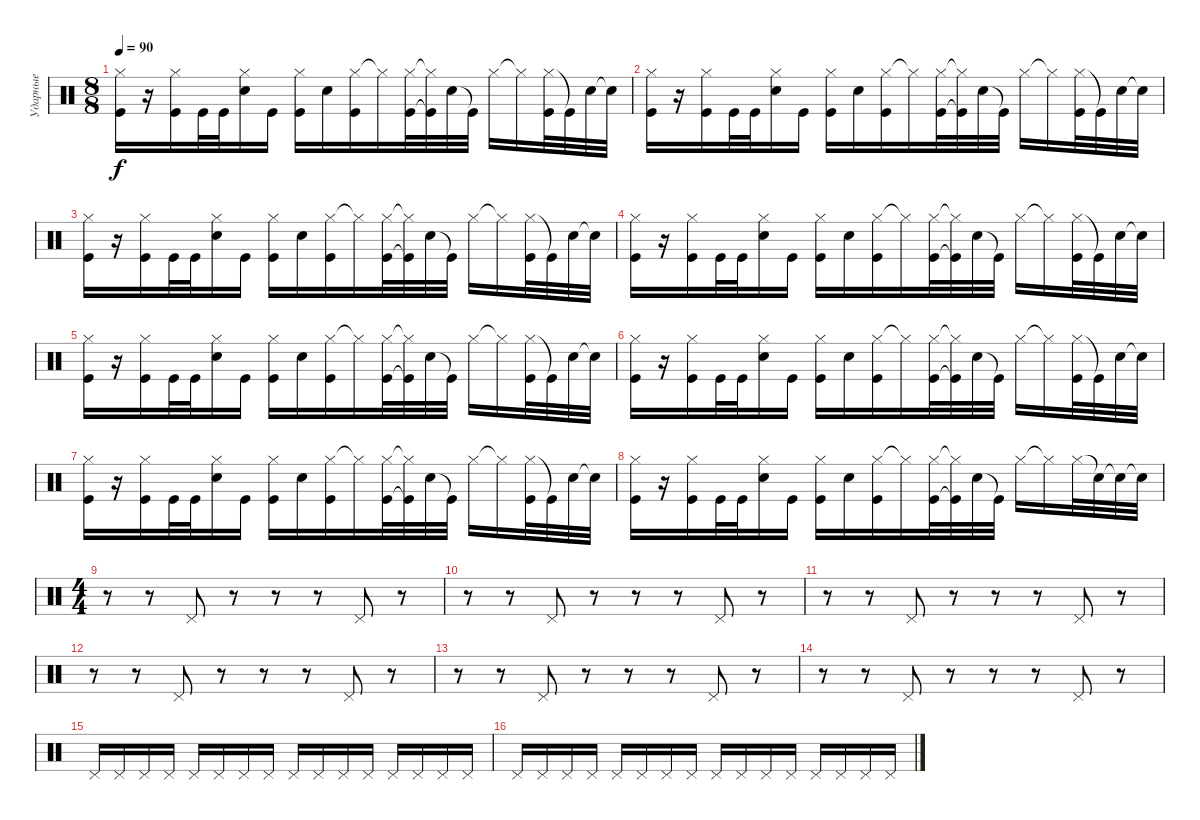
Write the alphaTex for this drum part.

\track ("Ударные" "Ударные") {instrument percussion}
\staff {score}
\articulation defaults
\ts (8 8)
\tempo 90
\clef neutral
\ks c
("Hi-Hat (closed)" "Kick (hit)").16{dy f} r.16 ("Hi-Hat (closed)" "Kick (hit)").16 "Kick (hit)".32 "Kick (hit)".32 ("Hi-Hat (closed)" "Electric Snare (hit)").16 "Kick (hit)".16 ("Hi-Hat (closed)" "Kick (hit)").16 "Electric Snare (hit)".16 ("Hi-Hat (closed)" "Kick (hit)").16 "Hi-Hat (closed)"{t}.16 ("Hi-Hat (closed)" "Kick (hit)").32 ("Hi-Hat (closed)"{t} "Kick (hit)"{t}).32 "Electric Snare (hit)".32 "Kick (hit)"{t}.32 "Hi-Hat (closed)".16 "Hi-Hat (closed)"{t}.16 ("Hi-Hat (closed)" "Kick (hit)").32 "Kick (hit)"{t}.32 "Electric Snare (hit)".32 "Electric Snare (hit)"{t}.32 |
("Hi-Hat (closed)" "Kick (hit)").16 r.16 ("Hi-Hat (closed)" "Kick (hit)").16 "Kick (hit)".32 "Kick (hit)".32 ("Hi-Hat (closed)" "Electric Snare (hit)").16 "Kick (hit)".16 ("Hi-Hat (closed)" "Kick (hit)").16 "Electric Snare (hit)".16 ("Hi-Hat (closed)" "Kick (hit)").16 "Hi-Hat (closed)"{t}.16 ("Hi-Hat (closed)" "Kick (hit)").32 ("Hi-Hat (closed)"{t} "Kick (hit)"{t}).32 "Electric Snare (hit)".32 "Kick (hit)"{t}.32 "Hi-Hat (closed)".16 "Hi-Hat (closed)"{t}.16 ("Hi-Hat (closed)" "Kick (hit)").32 "Kick (hit)"{t}.32 "Electric Snare (hit)".32 "Electric Snare (hit)"{t}.32 |
("Hi-Hat (closed)" "Kick (hit)").16 r.16 ("Hi-Hat (closed)" "Kick (hit)").16 "Kick (hit)".32 "Kick (hit)".32 ("Hi-Hat (closed)" "Electric Snare (hit)").16 "Kick (hit)".16 ("Hi-Hat (closed)" "Kick (hit)").16 "Electric Snare (hit)".16 ("Hi-Hat (closed)" "Kick (hit)").16 "Hi-Hat (closed)"{t}.16 ("Hi-Hat (closed)" "Kick (hit)").32 ("Hi-Hat (closed)"{t} "Kick (hit)"{t}).32 "Electric Snare (hit)".32 "Kick (hit)"{t}.32 "Hi-Hat (closed)".16 "Hi-Hat (closed)"{t}.16 ("Hi-Hat (closed)" "Kick (hit)").32 "Kick (hit)"{t}.32 "Electric Snare (hit)".32 "Electric Snare (hit)"{t}.32 |
("Hi-Hat (closed)" "Kick (hit)").16 r.16 ("Hi-Hat (closed)" "Kick (hit)").16 "Kick (hit)".32 "Kick (hit)".32 ("Hi-Hat (closed)" "Electric Snare (hit)").16 "Kick (hit)".16 ("Hi-Hat (closed)" "Kick (hit)").16 "Electric Snare (hit)".16 ("Hi-Hat (closed)" "Kick (hit)").16 "Hi-Hat (closed)"{t}.16 ("Hi-Hat (closed)" "Kick (hit)").32 ("Hi-Hat (closed)"{t} "Kick (hit)"{t}).32 "Electric Snare (hit)".32 "Kick (hit)"{t}.32 "Hi-Hat (closed)".16 "Hi-Hat (closed)"{t}.16 ("Hi-Hat (closed)" "Kick (hit)").32 "Kick (hit)"{t}.32 "Electric Snare (hit)".32 "Electric Snare (hit)"{t}.32 |
("Hi-Hat (closed)" "Kick (hit)").16 r.16 ("Hi-Hat (closed)" "Kick (hit)").16 "Kick (hit)".32 "Kick (hit)".32 ("Hi-Hat (closed)" "Electric Snare (hit)").16 "Kick (hit)".16 ("Hi-Hat (closed)" "Kick (hit)").16 "Electric Snare (hit)".16 ("Hi-Hat (closed)" "Kick (hit)").16 "Hi-Hat (closed)"{t}.16 ("Hi-Hat (closed)" "Kick (hit)").32 ("Hi-Hat (closed)"{t} "Kick (hit)"{t}).32 "Electric Snare (hit)".32 "Kick (hit)"{t}.32 "Hi-Hat (closed)".16 "Hi-Hat (closed)"{t}.16 ("Hi-Hat (closed)" "Kick (hit)").32 "Kick (hit)"{t}.32 "Electric Snare (hit)".32 "Electric Snare (hit)"{t}.32 |
("Hi-Hat (closed)" "Kick (hit)").16 r.16 ("Hi-Hat (closed)" "Kick (hit)").16 "Kick (hit)".32 "Kick (hit)".32 ("Hi-Hat (closed)" "Electric Snare (hit)").16 "Kick (hit)".16 ("Hi-Hat (closed)" "Kick (hit)").16 "Electric Snare (hit)".16 ("Hi-Hat (closed)" "Kick (hit)").16 "Hi-Hat (closed)"{t}.16 ("Hi-Hat (closed)" "Kick (hit)").32 ("Hi-Hat (closed)"{t} "Kick (hit)"{t}).32 "Electric Snare (hit)".32 "Kick (hit)"{t}.32 "Hi-Hat (closed)".16 "Hi-Hat (closed)"{t}.16 ("Hi-Hat (closed)" "Kick (hit)").32 "Kick (hit)"{t}.32 "Electric Snare (hit)".32 "Electric Snare (hit)"{t}.32 |
("Hi-Hat (closed)" "Kick (hit)").16 r.16 ("Hi-Hat (closed)" "Kick (hit)").16 "Kick (hit)".32 "Kick (hit)".32 ("Hi-Hat (closed)" "Electric Snare (hit)").16 "Kick (hit)".16 ("Hi-Hat (closed)" "Kick (hit)").16 "Electric Snare (hit)".16 ("Hi-Hat (closed)" "Kick (hit)").16 "Hi-Hat (closed)"{t}.16 ("Hi-Hat (closed)" "Kick (hit)").32 ("Hi-Hat (closed)"{t} "Kick (hit)"{t}).32 "Electric Snare (hit)".32 "Kick (hit)"{t}.32 "Hi-Hat (closed)".16 "Hi-Hat (closed)"{t}.16 ("Hi-Hat (closed)" "Kick (hit)").32 "Kick (hit)"{t}.32 "Electric Snare (hit)".32 "Electric Snare (hit)"{t}.32 |
("Hi-Hat (closed)" "Kick (hit)").16 r.16 ("Hi-Hat (closed)" "Kick (hit)").16 "Kick (hit)".32 "Kick (hit)".32 ("Hi-Hat (closed)" "Electric Snare (hit)").16 "Kick (hit)".16 ("Hi-Hat (closed)" "Kick (hit)").16 "Electric Snare (hit)".16 ("Hi-Hat (closed)" "Kick (hit)").16 "Hi-Hat (closed)"{t}.16 ("Hi-Hat (closed)" "Kick (hit)").32 ("Hi-Hat (closed)"{t} "Kick (hit)"{t}).32 "Electric Snare (hit)".32 "Kick (hit)"{t}.32 "Hi-Hat (closed)".16 "Hi-Hat (closed)"{t}.16 "Hi-Hat (closed)".32 "Snare (hit)"{t}.32 "Snare (hit)"{t}.32 "Snare (hit)"{t}.32 |
\ts (4 4)
r.8 r.8 "Pedal Hi-Hat (hit)".8 r.8 r.8 r.8 "Pedal Hi-Hat (hit)".8 r.8 |
r.8 r.8 "Pedal Hi-Hat (hit)".8 r.8 r.8 r.8 "Pedal Hi-Hat (hit)".8 r.8 |
r.8 r.8 "Pedal Hi-Hat (hit)".8 r.8 r.8 r.8 "Pedal Hi-Hat (hit)".8 r.8 |
r.8 r.8 "Pedal Hi-Hat (hit)".8 r.8 r.8 r.8 "Pedal Hi-Hat (hit)".8 r.8 |
r.8 r.8 "Pedal Hi-Hat (hit)".8 r.8 r.8 r.8 "Pedal Hi-Hat (hit)".8 r.8 |
r.8 r.8 "Pedal Hi-Hat (hit)".8 r.8 r.8 r.8 "Pedal Hi-Hat (hit)".8 r.8 |
"Pedal Hi-Hat (hit)".16 "Pedal Hi-Hat (hit)".16 "Pedal Hi-Hat (hit)".16 "Pedal Hi-Hat (hit)".16 "Pedal Hi-Hat (hit)".16 "Pedal Hi-Hat (hit)".16 "Pedal Hi-Hat (hit)".16 "Pedal Hi-Hat (hit)".16 "Pedal Hi-Hat (hit)".16 "Pedal Hi-Hat (hit)".16 "Pedal Hi-Hat (hit)".16 "Pedal Hi-Hat (hit)".16 "Pedal Hi-Hat (hit)".16 "Pedal Hi-Hat (hit)".16 "Pedal Hi-Hat (hit)".16 "Pedal Hi-Hat (hit)".16 |
"Pedal Hi-Hat (hit)".16 "Pedal Hi-Hat (hit)".16 "Pedal Hi-Hat (hit)".16 "Pedal Hi-Hat (hit)".16 "Pedal Hi-Hat (hit)".16 "Pedal Hi-Hat (hit)".16 "Pedal Hi-Hat (hit)".16 "Pedal Hi-Hat (hit)".16 "Pedal Hi-Hat (hit)".16 "Pedal Hi-Hat (hit)".16 "Pedal Hi-Hat (hit)".16 "Pedal Hi-Hat (hit)".16 "Pedal Hi-Hat (hit)".16 "Pedal Hi-Hat (hit)".16 "Pedal Hi-Hat (hit)".16 "Pedal Hi-Hat (hit)".16
